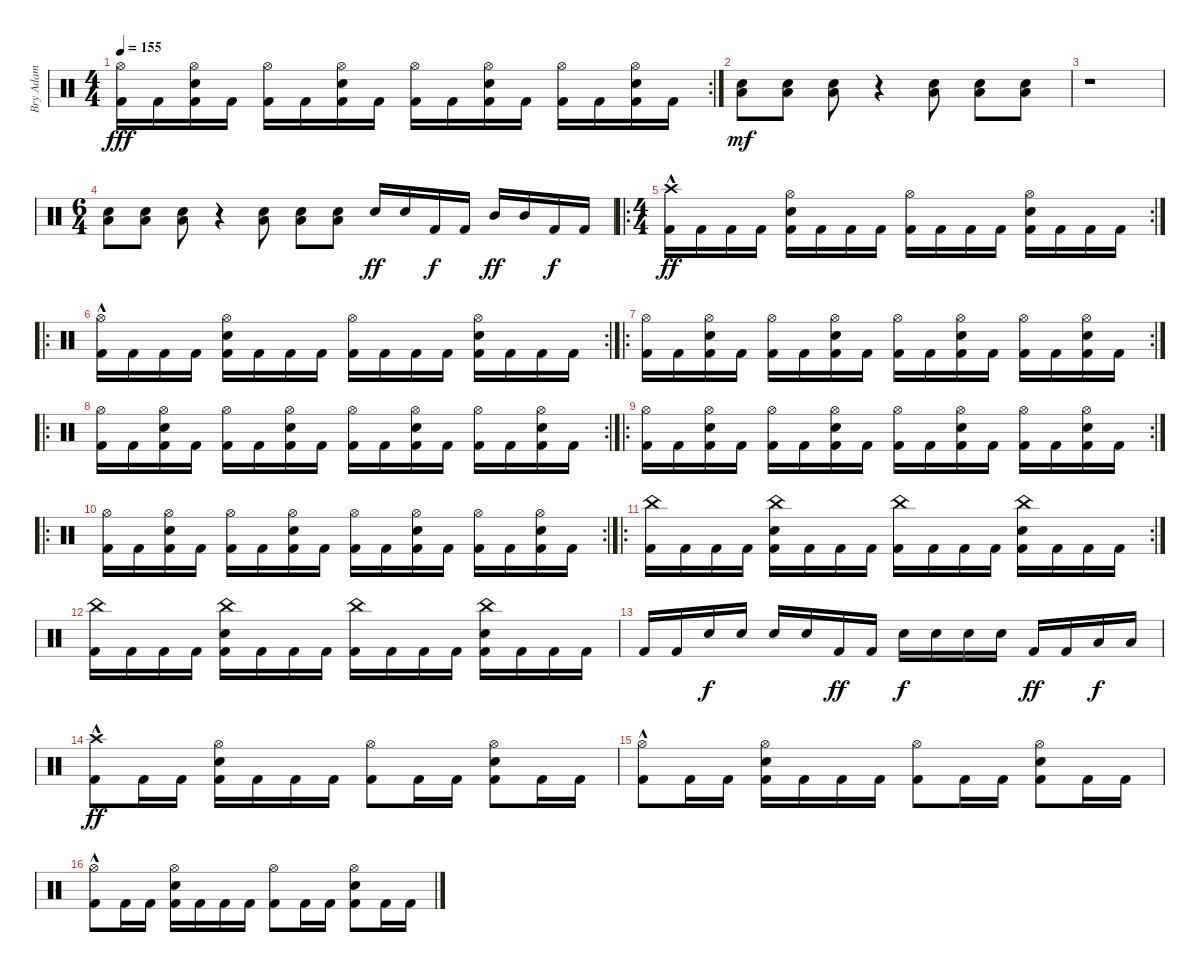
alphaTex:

\track ("Bry Adam " "Bry Adam ") {instrument percussion}
\staff {score}
\articulation defaults
\rc 2
\ts (4 4)
\tempo 155
\clef neutral
\ks c
("Hi-Hat (open)" "Kick (hit) 2").16{dy fff} "Kick (hit) 2".16 ("Hi-Hat (open)" "Snare (hit) 2" "Kick (hit) 2").16 "Kick (hit) 2".16 ("Hi-Hat (open)" "Kick (hit) 2").16 "Kick (hit) 2".16 ("Hi-Hat (open)" "Snare (hit) 2" "Kick (hit) 2").16 "Kick (hit) 2".16 ("Hi-Hat (open)" "Kick (hit) 2").16 "Kick (hit) 2".16 ("Hi-Hat (open)" "Snare (hit) 2" "Kick (hit) 2").16 "Kick (hit) 2".16 ("Hi-Hat (open)" "Kick (hit) 2").16 "Kick (hit) 2".16 ("Hi-Hat (open)" "Snare (hit) 2" "Kick (hit) 2").16 "Kick (hit) 2".16 |
("Low Tom (hit)" "Snare (hit) 2").8{dy mf} ("Low Tom (hit)" "Snare (hit) 2").8 ("Low Tom (hit)" "Snare (hit) 2").8 r.4 ("Low Tom (hit)" "Snare (hit) 2").8 ("Low Tom (hit)" "Snare (hit) 2").8 ("Low Tom (hit)" "Snare (hit) 2").8 |
r.1 |
\ts (6 4)
("Low Tom (hit)" "Snare (hit) 2").8 ("Low Tom (hit)" "Snare (hit) 2").8 ("Low Tom (hit)" "Snare (hit) 2").8 r.4 ("Low Tom (hit)" "Snare (hit) 2").8 ("Low Tom (hit)" "Snare (hit) 2").8 ("Low Tom (hit)" "Snare (hit) 2").8 "Snare (hit) 2".16{dy ff} "Snare (hit) 2".16 "Kick (hit) 2".16{dy f} "Kick (hit) 2".16 "Mid Tom (hit)".16{dy ff} "Mid Tom (hit)".16 "Kick (hit) 2".16{dy f} "Kick (hit) 2".16 |
\ro
\rc 2
\ts (4 4)
("Crash high (hit)"{hac} "Kick (hit) 2").16{dy ff} "Kick (hit) 2".16 "Kick (hit) 2".16 "Kick (hit) 2".16 ("Hi-Hat (open)" "Snare (hit) 2" "Kick (hit) 2").16 "Kick (hit) 2".16 "Kick (hit) 2".16 "Kick (hit) 2".16 ("Hi-Hat (open)" "Kick (hit) 2").16 "Kick (hit) 2".16 "Kick (hit) 2".16 "Kick (hit) 2".16 ("Hi-Hat (open)" "Snare (hit) 2" "Kick (hit) 2").16 "Kick (hit) 2".16 "Kick (hit) 2".16 "Kick (hit) 2".16 |
\ro
\rc 2
("Hi-Hat (open)"{hac} "Kick (hit) 2").16 "Kick (hit) 2".16 "Kick (hit) 2".16 "Kick (hit) 2".16 ("Hi-Hat (open)" "Snare (hit) 2" "Kick (hit) 2").16 "Kick (hit) 2".16 "Kick (hit) 2".16 "Kick (hit) 2".16 ("Hi-Hat (open)" "Kick (hit) 2").16 "Kick (hit) 2".16 "Kick (hit) 2".16 "Kick (hit) 2".16 ("Hi-Hat (open)" "Snare (hit) 2" "Kick (hit) 2").16 "Kick (hit) 2".16 "Kick (hit) 2".16 "Kick (hit) 2".16 |
\ro
\rc 2
("Hi-Hat (open)" "Kick (hit) 2").16 "Kick (hit) 2".16 ("Hi-Hat (open)" "Snare (hit) 2" "Kick (hit) 2").16 "Kick (hit) 2".16 ("Hi-Hat (open)" "Kick (hit) 2").16 "Kick (hit) 2".16 ("Hi-Hat (open)" "Snare (hit) 2" "Kick (hit) 2").16 "Kick (hit) 2".16 ("Hi-Hat (open)" "Kick (hit) 2").16 "Kick (hit) 2".16 ("Hi-Hat (open)" "Snare (hit) 2" "Kick (hit) 2").16 "Kick (hit) 2".16 ("Hi-Hat (open)" "Kick (hit) 2").16 "Kick (hit) 2".16 ("Hi-Hat (open)" "Snare (hit) 2" "Kick (hit) 2").16 "Kick (hit) 2".16 |
\ro
\rc 2
("Hi-Hat (open)" "Kick (hit) 2").16 "Kick (hit) 2".16 ("Hi-Hat (open)" "Snare (hit) 2" "Kick (hit) 2").16 "Kick (hit) 2".16 ("Hi-Hat (open)" "Kick (hit) 2").16 "Kick (hit) 2".16 ("Hi-Hat (open)" "Snare (hit) 2" "Kick (hit) 2").16 "Kick (hit) 2".16 ("Hi-Hat (open)" "Kick (hit) 2").16 "Kick (hit) 2".16 ("Hi-Hat (open)" "Snare (hit) 2" "Kick (hit) 2").16 "Kick (hit) 2".16 ("Hi-Hat (open)" "Kick (hit) 2").16 "Kick (hit) 2".16 ("Hi-Hat (open)" "Snare (hit) 2" "Kick (hit) 2").16 "Kick (hit) 2".16 |
\ro
\rc 2
("Hi-Hat (open)" "Kick (hit) 2").16 "Kick (hit) 2".16 ("Hi-Hat (open)" "Snare (hit) 2" "Kick (hit) 2").16 "Kick (hit) 2".16 ("Hi-Hat (open)" "Kick (hit) 2").16 "Kick (hit) 2".16 ("Hi-Hat (open)" "Snare (hit) 2" "Kick (hit) 2").16 "Kick (hit) 2".16 ("Hi-Hat (open)" "Kick (hit) 2").16 "Kick (hit) 2".16 ("Hi-Hat (open)" "Snare (hit) 2" "Kick (hit) 2").16 "Kick (hit) 2".16 ("Hi-Hat (open)" "Kick (hit) 2").16 "Kick (hit) 2".16 ("Hi-Hat (open)" "Snare (hit) 2" "Kick (hit) 2").16 "Kick (hit) 2".16 |
\ro
\rc 2
("Hi-Hat (open)" "Kick (hit) 2").16 "Kick (hit) 2".16 ("Hi-Hat (open)" "Snare (hit) 2" "Kick (hit) 2").16 "Kick (hit) 2".16 ("Hi-Hat (open)" "Kick (hit) 2").16 "Kick (hit) 2".16 ("Hi-Hat (open)" "Snare (hit) 2" "Kick (hit) 2").16 "Kick (hit) 2".16 ("Hi-Hat (open)" "Kick (hit) 2").16 "Kick (hit) 2".16 ("Hi-Hat (open)" "Snare (hit) 2" "Kick (hit) 2").16 "Kick (hit) 2".16 ("Hi-Hat (open)" "Kick (hit) 2").16 "Kick (hit) 2".16 ("Hi-Hat (open)" "Snare (hit) 2" "Kick (hit) 2").16 "Kick (hit) 2".16 |
\ro
\rc 2
("China (hit)" "Kick (hit) 2").16 "Kick (hit) 2".16 "Kick (hit) 2".16 "Kick (hit) 2".16 ("China (hit)" "Snare (hit) 2" "Kick (hit) 2").16 "Kick (hit) 2".16 "Kick (hit) 2".16 "Kick (hit) 2".16 ("China (hit)" "Kick (hit) 2").16 "Kick (hit) 2".16 "Kick (hit) 2".16 "Kick (hit) 2".16 ("China (hit)" "Snare (hit) 2" "Kick (hit) 2").16 "Kick (hit) 2".16 "Kick (hit) 2".16 "Kick (hit) 2".16 |
("China (hit)" "Kick (hit) 2").16 "Kick (hit) 2".16 "Kick (hit) 2".16 "Kick (hit) 2".16 ("China (hit)" "Snare (hit) 2" "Kick (hit) 2").16 "Kick (hit) 2".16 "Kick (hit) 2".16 "Kick (hit) 2".16 ("China (hit)" "Kick (hit) 2").16 "Kick (hit) 2".16 "Kick (hit) 2".16 "Kick (hit) 2".16 ("China (hit)" "Snare (hit) 2" "Kick (hit) 2").16 "Kick (hit) 2".16 "Kick (hit) 2".16 "Kick (hit) 2".16 |
"Kick (hit) 2".16 "Kick (hit) 2".16 "Snare (hit) 2".16{dy f} "Snare (hit) 2".16 "Snare (hit) 2".16 "Snare (hit) 2".16 "Kick (hit) 2".16{dy ff} "Kick (hit) 2".16 "Snare (hit) 2".16{dy f} "Snare (hit) 2".16 "Snare (hit) 2".16 "Snare (hit) 2".16 "Kick (hit) 2".16{dy ff} "Kick (hit) 2".16 "Low Tom (hit)".16{dy f} "Low Tom (hit)".16 |
("Crash high (hit)"{hac} "Kick (hit) 2").8{dy ff} "Kick (hit) 2".16 "Kick (hit) 2".16 ("Hi-Hat (open)" "Snare (hit) 2" "Kick (hit) 2").16 "Kick (hit) 2".16 "Kick (hit) 2".16 "Kick (hit) 2".16 ("Hi-Hat (open)" "Kick (hit) 2").8 "Kick (hit) 2".16 "Kick (hit) 2".16 ("Hi-Hat (open)" "Snare (hit) 2" "Kick (hit) 2").8 "Kick (hit) 2".16 "Kick (hit) 2".16 |
("Hi-Hat (open)"{hac} "Kick (hit) 2").8 "Kick (hit) 2".16 "Kick (hit) 2".16 ("Hi-Hat (open)" "Snare (hit) 2" "Kick (hit) 2").16 "Kick (hit) 2".16 "Kick (hit) 2".16 "Kick (hit) 2".16 ("Hi-Hat (open)" "Kick (hit) 2").8 "Kick (hit) 2".16 "Kick (hit) 2".16 ("Hi-Hat (open)" "Snare (hit) 2" "Kick (hit) 2").8 "Kick (hit) 2".16 "Kick (hit) 2".16 |
("Hi-Hat (open)"{hac} "Kick (hit) 2").8 "Kick (hit) 2".16 "Kick (hit) 2".16 ("Hi-Hat (open)" "Snare (hit) 2" "Kick (hit) 2").16 "Kick (hit) 2".16 "Kick (hit) 2".16 "Kick (hit) 2".16 ("Hi-Hat (open)" "Kick (hit) 2").8 "Kick (hit) 2".16 "Kick (hit) 2".16 ("Hi-Hat (open)" "Snare (hit) 2" "Kick (hit) 2").8 "Kick (hit) 2".16 "Kick (hit) 2".16
